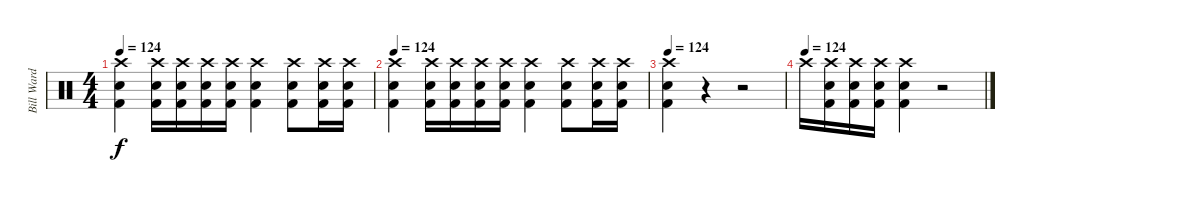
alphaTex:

\track ("Bill Ward" "Bill Ward") {instrument percussion}
\staff {score}
\articulation defaults
\ts (4 4)
\tempo 124
\clef neutral
\ks c
("Crash high (hit)" "Snare (hit) 2" "Kick (hit) 2").4{dy f} ("Crash high (hit)" "Snare (hit) 2" "Kick (hit) 2").16 ("Crash high (hit)" "Snare (hit) 2" "Kick (hit) 2").16 ("Crash high (hit)" "Snare (hit) 2" "Kick (hit) 2").16 ("Crash high (hit)" "Snare (hit) 2" "Kick (hit) 2").16 ("Crash high (hit)" "Snare (hit) 2" "Kick (hit) 2").4 ("Crash high (hit)" "Snare (hit) 2" "Kick (hit) 2").8 ("Crash high (hit)" "Snare (hit) 2" "Kick (hit) 2").16 ("Crash high (hit)" "Snare (hit) 2" "Kick (hit) 2").16 |
\tempo 124
("Crash high (hit)" "Snare (hit) 2" "Kick (hit) 2").4 ("Crash high (hit)" "Snare (hit) 2" "Kick (hit) 2").16 ("Crash high (hit)" "Snare (hit) 2" "Kick (hit) 2").16 ("Crash high (hit)" "Snare (hit) 2" "Kick (hit) 2").16 ("Crash high (hit)" "Snare (hit) 2" "Kick (hit) 2").16 ("Crash high (hit)" "Snare (hit) 2" "Kick (hit) 2").4 ("Crash high (hit)" "Snare (hit) 2" "Kick (hit) 2").8 ("Crash high (hit)" "Snare (hit) 2" "Kick (hit) 2").16 ("Crash high (hit)" "Snare (hit) 2" "Kick (hit) 2").16 |
\tempo 124
("Crash high (hit)" "Snare (hit) 2" "Kick (hit) 2").4 r.4 r.2 |
\tempo (124)
"Crash high (hit)".16 ("Crash high (hit)" "Snare (hit) 2" "Kick (hit) 2").16 ("Crash high (hit)" "Snare (hit) 2" "Kick (hit) 2").16 ("Crash high (hit)" "Snare (hit) 2" "Kick (hit) 2").16 ("Crash high (hit)" "Snare (hit) 2" "Kick (hit) 2").4 r.2
